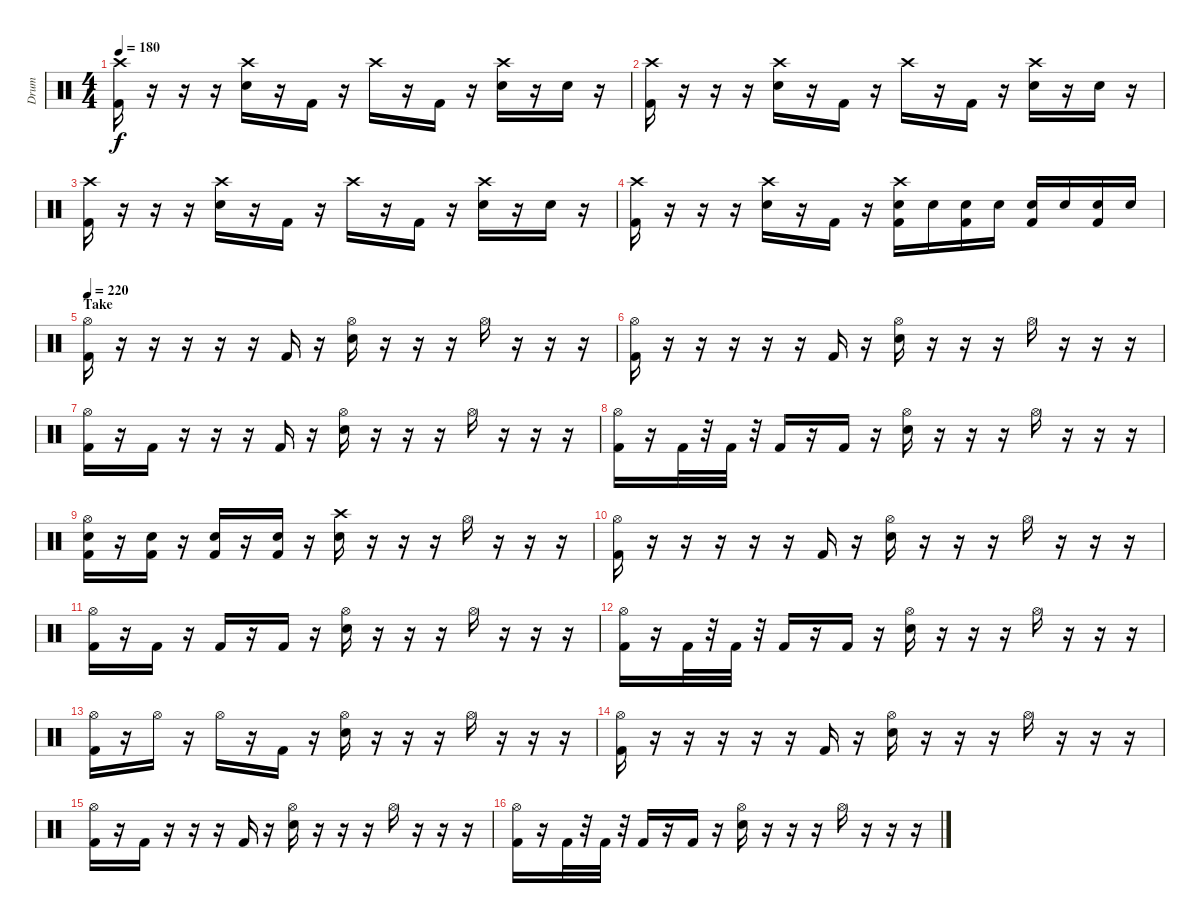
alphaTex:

\track ("Drum" "Drum") {instrument percussion}
\staff {score}
\articulation defaults
\ts (4 4)
\tempo 180
\clef neutral
\ks c
("Crash high (hit)" "Kick (hit) 2").16{dy f} r.16 r.16 r.16 ("Crash high (hit)" "Electric Snare (hit)").16 r.16 "Kick (hit) 2".16 r.16 "Crash high (hit)".16 r.16 "Kick (hit) 2".16 r.16 ("Crash high (hit)" "Electric Snare (hit)").16 r.16 "Electric Snare (hit)".16 r.16 |
("Crash high (hit)" "Kick (hit) 2").16 r.16 r.16 r.16 ("Crash high (hit)" "Electric Snare (hit)").16 r.16 "Kick (hit) 2".16 r.16 "Crash high (hit)".16 r.16 "Kick (hit) 2".16 r.16 ("Crash high (hit)" "Electric Snare (hit)").16 r.16 "Electric Snare (hit)".16 r.16 |
("Crash high (hit)" "Kick (hit) 2").16 r.16 r.16 r.16 ("Crash high (hit)" "Electric Snare (hit)").16 r.16 "Kick (hit) 2".16 r.16 "Crash high (hit)".16 r.16 "Kick (hit) 2".16 r.16 ("Crash high (hit)" "Electric Snare (hit)").16 r.16 "Electric Snare (hit)".16 r.16 |
("Crash high (hit)" "Kick (hit) 2").16 r.16 r.16 r.16 ("Crash high (hit)" "Electric Snare (hit)").16 r.16 "Kick (hit) 2".16 r.16 ("Crash high (hit)" "Electric Snare (hit)" "Kick (hit) 2").16 "Electric Snare (hit)".16 ("Electric Snare (hit)" "Kick (hit) 2").16 "Electric Snare (hit)".16 ("Electric Snare (hit)" "Kick (hit) 2").16 "Electric Snare (hit)".16 ("Electric Snare (hit)" "Kick (hit) 2").16 "Electric Snare (hit)".16 |
\section ("" "Take")
\tempo 220
("Hi-Hat (open)" "Kick (hit) 2").16 r.16 r.16 r.16 r.16 r.16 "Kick (hit) 2".16 r.16 ("Hi-Hat (open)" "Electric Snare (hit)").16 r.16 r.16 r.16 "Hi-Hat (open)".16 r.16 r.16 r.16 |
("Hi-Hat (open)" "Kick (hit) 2").16 r.16 r.16 r.16 r.16 r.16 "Kick (hit) 2".16 r.16 ("Hi-Hat (open)" "Electric Snare (hit)").16 r.16 r.16 r.16 "Hi-Hat (open)".16 r.16 r.16 r.16 |
("Hi-Hat (open)" "Kick (hit) 2").16 r.16 "Kick (hit) 2".16 r.16 r.16 r.16 "Kick (hit) 2".16 r.16 ("Hi-Hat (open)" "Electric Snare (hit)").16 r.16 r.16 r.16 "Hi-Hat (open)".16 r.16 r.16 r.16 |
("Hi-Hat (open)" "Kick (hit) 2").16 r.16 "Kick (hit) 2".32 r.32 "Kick (hit) 2".32 r.32 "Kick (hit) 2".16 r.16 "Kick (hit) 2".16 r.16 ("Hi-Hat (open)" "Electric Snare (hit)").16 r.16 r.16 r.16 "Hi-Hat (open)".16 r.16 r.16 r.16 |
("Hi-Hat (open)" "Electric Snare (hit)" "Kick (hit) 2").16 r.16 ("Electric Snare (hit)" "Kick (hit) 2").16 r.16 ("Electric Snare (hit)" "Kick (hit) 2").16 r.16 ("Electric Snare (hit)" "Kick (hit) 2").16 r.16 ("Crash high (hit)" "Electric Snare (hit)").16 r.16 r.16 r.16 "Hi-Hat (open)".16 r.16 r.16 r.16 |
("Hi-Hat (open)" "Kick (hit) 2").16 r.16 r.16 r.16 r.16 r.16 "Kick (hit) 2".16 r.16 ("Hi-Hat (open)" "Electric Snare (hit)").16 r.16 r.16 r.16 "Hi-Hat (open)".16 r.16 r.16 r.16 |
("Hi-Hat (open)" "Kick (hit) 2").16 r.16 "Kick (hit) 2".16 r.16 "Kick (hit) 2".16 r.16 "Kick (hit) 2".16 r.16 ("Hi-Hat (open)" "Electric Snare (hit)").16 r.16 r.16 r.16 "Hi-Hat (open)".16 r.16 r.16 r.16 |
("Hi-Hat (open)" "Kick (hit) 2").16 r.16 "Kick (hit) 2".32 r.32 "Kick (hit) 2".32 r.32 "Kick (hit) 2".16 r.16 "Kick (hit) 2".16 r.16 ("Hi-Hat (open)" "Electric Snare (hit)").16 r.16 r.16 r.16 "Hi-Hat (open)".16 r.16 r.16 r.16 |
("Hi-Hat (open)" "Kick (hit) 2").16 r.16 "Hi-Hat (open)".16 r.16 "Hi-Hat (open)".16 r.16 "Kick (hit) 2".16 r.16 ("Hi-Hat (open)" "Electric Snare (hit)").16 r.16 r.16 r.16 "Hi-Hat (open)".16 r.16 r.16 r.16 |
("Hi-Hat (open)" "Kick (hit) 2").16 r.16 r.16 r.16 r.16 r.16 "Kick (hit) 2".16 r.16 ("Hi-Hat (open)" "Electric Snare (hit)").16 r.16 r.16 r.16 "Hi-Hat (open)".16 r.16 r.16 r.16 |
("Hi-Hat (open)" "Kick (hit) 2").16 r.16 "Kick (hit) 2".16 r.16 r.16 r.16 "Kick (hit) 2".16 r.16 ("Hi-Hat (open)" "Electric Snare (hit)").16 r.16 r.16 r.16 "Hi-Hat (open)".16 r.16 r.16 r.16 |
("Hi-Hat (open)" "Kick (hit) 2").16 r.16 "Kick (hit) 2".32 r.32 "Kick (hit) 2".32 r.32 "Kick (hit) 2".16 r.16 "Kick (hit) 2".16 r.16 ("Hi-Hat (open)" "Electric Snare (hit)").16 r.16 r.16 r.16 "Hi-Hat (open)".16 r.16 r.16 r.16
